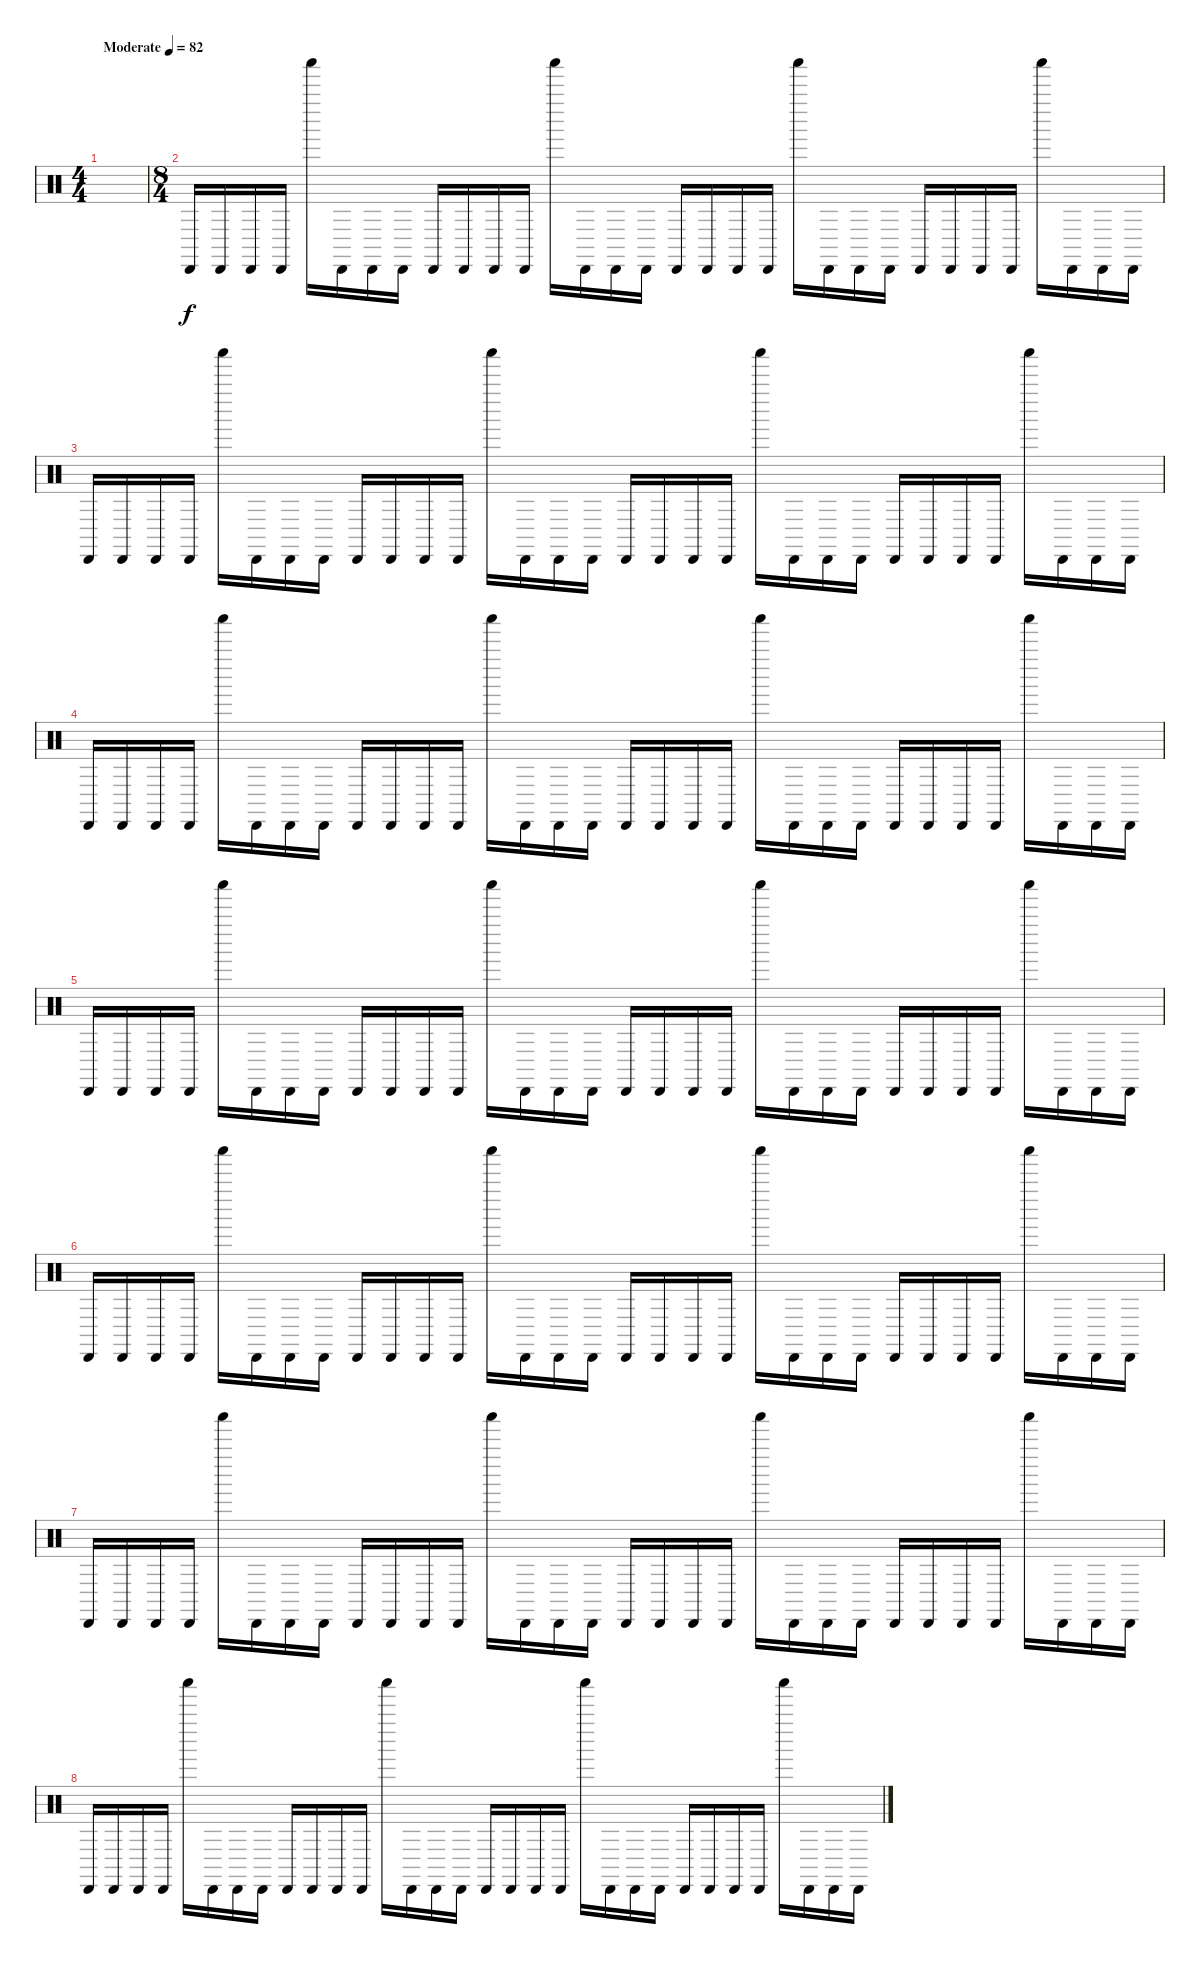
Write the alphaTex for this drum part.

\track "" {instrument percussion}
\staff {score}
\articulation defaults
\ts (4 4)
\tempo (82 "Moderate")
\clef neutral
\ks c
|
\ts (8 4)
"Cabasa (hit)".16 "Cabasa (hit)".16 "Cabasa (hit)".16 "Cabasa (hit)".16 "Shaker (hit)".16 "Cabasa (hit)".16 "Cabasa (hit)".16 "Cabasa (hit)".16 "Cabasa (hit)".16 "Cabasa (hit)".16 "Cabasa (hit)".16 "Cabasa (hit)".16 "Shaker (hit)".16 "Cabasa (hit)".16 "Cabasa (hit)".16 "Cabasa (hit)".16 "Cabasa (hit)".16 "Cabasa (hit)".16 "Cabasa (hit)".16 "Cabasa (hit)".16 "Shaker (hit)".16 "Cabasa (hit)".16 "Cabasa (hit)".16 "Cabasa (hit)".16 "Cabasa (hit)".16 "Cabasa (hit)".16 "Cabasa (hit)".16 "Cabasa (hit)".16 "Shaker (hit)".16 "Cabasa (hit)".16 "Cabasa (hit)".16 "Cabasa (hit)".16 |
"Cabasa (hit)".16 "Cabasa (hit)".16 "Cabasa (hit)".16 "Cabasa (hit)".16 "Shaker (hit)".16 "Cabasa (hit)".16 "Cabasa (hit)".16 "Cabasa (hit)".16 "Cabasa (hit)".16 "Cabasa (hit)".16 "Cabasa (hit)".16 "Cabasa (hit)".16 "Shaker (hit)".16 "Cabasa (hit)".16 "Cabasa (hit)".16 "Cabasa (hit)".16 "Cabasa (hit)".16 "Cabasa (hit)".16 "Cabasa (hit)".16 "Cabasa (hit)".16 "Shaker (hit)".16 "Cabasa (hit)".16 "Cabasa (hit)".16 "Cabasa (hit)".16 "Cabasa (hit)".16 "Cabasa (hit)".16 "Cabasa (hit)".16 "Cabasa (hit)".16 "Shaker (hit)".16 "Cabasa (hit)".16 "Cabasa (hit)".16 "Cabasa (hit)".16 |
"Cabasa (hit)".16 "Cabasa (hit)".16 "Cabasa (hit)".16 "Cabasa (hit)".16 "Shaker (hit)".16 "Cabasa (hit)".16 "Cabasa (hit)".16 "Cabasa (hit)".16 "Cabasa (hit)".16 "Cabasa (hit)".16 "Cabasa (hit)".16 "Cabasa (hit)".16 "Shaker (hit)".16 "Cabasa (hit)".16 "Cabasa (hit)".16 "Cabasa (hit)".16 "Cabasa (hit)".16 "Cabasa (hit)".16 "Cabasa (hit)".16 "Cabasa (hit)".16 "Shaker (hit)".16 "Cabasa (hit)".16 "Cabasa (hit)".16 "Cabasa (hit)".16 "Cabasa (hit)".16 "Cabasa (hit)".16 "Cabasa (hit)".16 "Cabasa (hit)".16 "Shaker (hit)".16 "Cabasa (hit)".16 "Cabasa (hit)".16 "Cabasa (hit)".16 |
"Cabasa (hit)".16 "Cabasa (hit)".16 "Cabasa (hit)".16 "Cabasa (hit)".16 "Shaker (hit)".16 "Cabasa (hit)".16 "Cabasa (hit)".16 "Cabasa (hit)".16 "Cabasa (hit)".16 "Cabasa (hit)".16 "Cabasa (hit)".16 "Cabasa (hit)".16 "Shaker (hit)".16 "Cabasa (hit)".16 "Cabasa (hit)".16 "Cabasa (hit)".16 "Cabasa (hit)".16 "Cabasa (hit)".16 "Cabasa (hit)".16 "Cabasa (hit)".16 "Shaker (hit)".16 "Cabasa (hit)".16 "Cabasa (hit)".16 "Cabasa (hit)".16 "Cabasa (hit)".16 "Cabasa (hit)".16 "Cabasa (hit)".16 "Cabasa (hit)".16 "Shaker (hit)".16 "Cabasa (hit)".16 "Cabasa (hit)".16 "Cabasa (hit)".16 |
"Cabasa (hit)".16 "Cabasa (hit)".16 "Cabasa (hit)".16 "Cabasa (hit)".16 "Shaker (hit)".16 "Cabasa (hit)".16 "Cabasa (hit)".16 "Cabasa (hit)".16 "Cabasa (hit)".16 "Cabasa (hit)".16 "Cabasa (hit)".16 "Cabasa (hit)".16 "Shaker (hit)".16 "Cabasa (hit)".16 "Cabasa (hit)".16 "Cabasa (hit)".16 "Cabasa (hit)".16 "Cabasa (hit)".16 "Cabasa (hit)".16 "Cabasa (hit)".16 "Shaker (hit)".16 "Cabasa (hit)".16 "Cabasa (hit)".16 "Cabasa (hit)".16 "Cabasa (hit)".16 "Cabasa (hit)".16 "Cabasa (hit)".16 "Cabasa (hit)".16 "Shaker (hit)".16 "Cabasa (hit)".16 "Cabasa (hit)".16 "Cabasa (hit)".16 |
"Cabasa (hit)".16 "Cabasa (hit)".16 "Cabasa (hit)".16 "Cabasa (hit)".16 "Shaker (hit)".16 "Cabasa (hit)".16 "Cabasa (hit)".16 "Cabasa (hit)".16 "Cabasa (hit)".16 "Cabasa (hit)".16 "Cabasa (hit)".16 "Cabasa (hit)".16 "Shaker (hit)".16 "Cabasa (hit)".16 "Cabasa (hit)".16 "Cabasa (hit)".16 "Cabasa (hit)".16 "Cabasa (hit)".16 "Cabasa (hit)".16 "Cabasa (hit)".16 "Shaker (hit)".16 "Cabasa (hit)".16 "Cabasa (hit)".16 "Cabasa (hit)".16 "Cabasa (hit)".16 "Cabasa (hit)".16 "Cabasa (hit)".16 "Cabasa (hit)".16 "Shaker (hit)".16 "Cabasa (hit)".16 "Cabasa (hit)".16 "Cabasa (hit)".16 |
"Cabasa (hit)".16 "Cabasa (hit)".16 "Cabasa (hit)".16 "Cabasa (hit)".16 "Shaker (hit)".16 "Cabasa (hit)".16 "Cabasa (hit)".16 "Cabasa (hit)".16 "Cabasa (hit)".16 "Cabasa (hit)".16 "Cabasa (hit)".16 "Cabasa (hit)".16 "Shaker (hit)".16 "Cabasa (hit)".16 "Cabasa (hit)".16 "Cabasa (hit)".16 "Cabasa (hit)".16 "Cabasa (hit)".16 "Cabasa (hit)".16 "Cabasa (hit)".16 "Shaker (hit)".16 "Cabasa (hit)".16 "Cabasa (hit)".16 "Cabasa (hit)".16 "Cabasa (hit)".16 "Cabasa (hit)".16 "Cabasa (hit)".16 "Cabasa (hit)".16 "Shaker (hit)".16 "Cabasa (hit)".16 "Cabasa (hit)".16 "Cabasa (hit)".16
